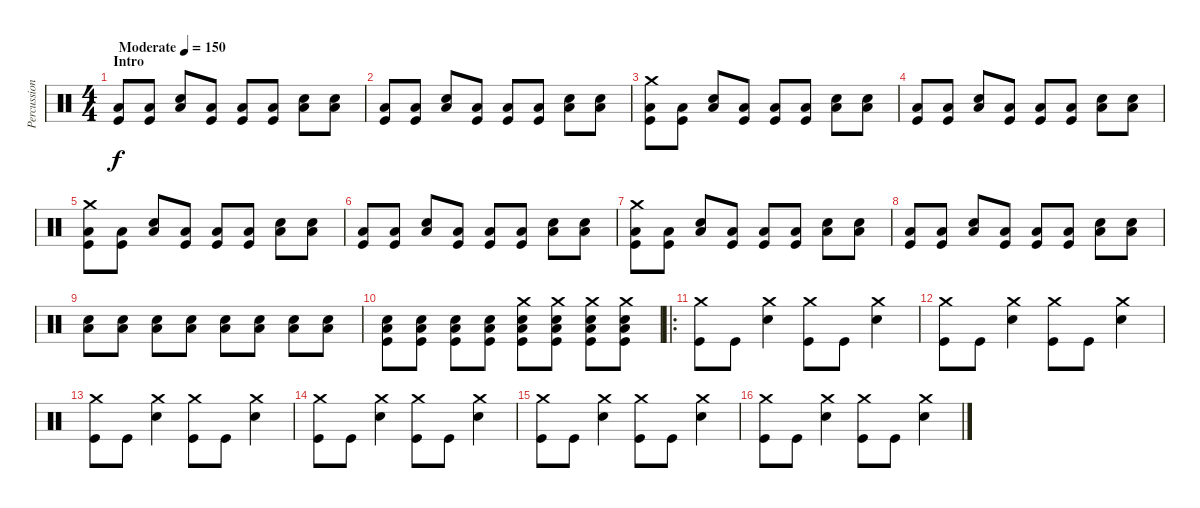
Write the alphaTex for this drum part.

\track ("Percussion" "Percussion") {instrument percussion}
\staff {score}
\articulation defaults
\ts (4 4)
\section ("" "Intro")
\tempo (150 "Moderate")
\clef neutral
\ks c
("Low Floor Tom (hit)" "Kick (hit)").8{dy f} ("Low Floor Tom (hit)" "Kick (hit)").8 ("Snare (hit) 2" "Low Floor Tom (hit)").8 ("Low Floor Tom (hit)" "Kick (hit)").8 ("Low Floor Tom (hit)" "Kick (hit)").8 ("Low Floor Tom (hit)" "Kick (hit)").8 ("Snare (hit) 2" "Low Floor Tom (hit)").8 ("Snare (hit) 2" "Low Floor Tom (hit)").8 |
("Low Floor Tom (hit)" "Kick (hit)").8 ("Low Floor Tom (hit)" "Kick (hit)").8 ("Snare (hit) 2" "Low Floor Tom (hit)").8 ("Low Floor Tom (hit)" "Kick (hit)").8 ("Low Floor Tom (hit)" "Kick (hit)").8 ("Low Floor Tom (hit)" "Kick (hit)").8 ("Snare (hit) 2" "Low Floor Tom (hit)").8 ("Snare (hit) 2" "Low Floor Tom (hit)").8 |
("Crash medium (hit)" "Low Floor Tom (hit)" "Kick (hit)").8 ("Low Floor Tom (hit)" "Kick (hit)").8 ("Snare (hit) 2" "Low Floor Tom (hit)").8 ("Low Floor Tom (hit)" "Kick (hit)").8 ("Low Floor Tom (hit)" "Kick (hit)").8 ("Low Floor Tom (hit)" "Kick (hit)").8 ("Snare (hit) 2" "Low Floor Tom (hit)").8 ("Snare (hit) 2" "Low Floor Tom (hit)").8 |
("Low Floor Tom (hit)" "Kick (hit)").8 ("Low Floor Tom (hit)" "Kick (hit)").8 ("Snare (hit) 2" "Low Floor Tom (hit)").8 ("Low Floor Tom (hit)" "Kick (hit)").8 ("Low Floor Tom (hit)" "Kick (hit)").8 ("Low Floor Tom (hit)" "Kick (hit)").8 ("Snare (hit) 2" "Low Floor Tom (hit)").8 ("Snare (hit) 2" "Low Floor Tom (hit)").8 |
("Crash medium (hit)" "Low Floor Tom (hit)" "Kick (hit)").8 ("Low Floor Tom (hit)" "Kick (hit)").8 ("Snare (hit) 2" "Low Floor Tom (hit)").8 ("Low Floor Tom (hit)" "Kick (hit)").8 ("Low Floor Tom (hit)" "Kick (hit)").8 ("Low Floor Tom (hit)" "Kick (hit)").8 ("Snare (hit) 2" "Low Floor Tom (hit)").8 ("Snare (hit) 2" "Low Floor Tom (hit)").8 |
("Low Floor Tom (hit)" "Kick (hit)").8 ("Low Floor Tom (hit)" "Kick (hit)").8 ("Snare (hit) 2" "Low Floor Tom (hit)").8 ("Low Floor Tom (hit)" "Kick (hit)").8 ("Low Floor Tom (hit)" "Kick (hit)").8 ("Low Floor Tom (hit)" "Kick (hit)").8 ("Snare (hit) 2" "Low Floor Tom (hit)").8 ("Snare (hit) 2" "Low Floor Tom (hit)").8 |
("Crash medium (hit)" "Low Floor Tom (hit)" "Kick (hit)").8 ("Low Floor Tom (hit)" "Kick (hit)").8 ("Snare (hit) 2" "Low Floor Tom (hit)").8 ("Low Floor Tom (hit)" "Kick (hit)").8 ("Low Floor Tom (hit)" "Kick (hit)").8 ("Low Floor Tom (hit)" "Kick (hit)").8 ("Snare (hit) 2" "Low Floor Tom (hit)").8 ("Snare (hit) 2" "Low Floor Tom (hit)").8 |
("Low Floor Tom (hit)" "Kick (hit)").8 ("Low Floor Tom (hit)" "Kick (hit)").8 ("Snare (hit) 2" "Low Floor Tom (hit)").8 ("Low Floor Tom (hit)" "Kick (hit)").8 ("Low Floor Tom (hit)" "Kick (hit)").8 ("Low Floor Tom (hit)" "Kick (hit)").8 ("Snare (hit) 2" "Low Floor Tom (hit)").8 ("Snare (hit) 2" "Low Floor Tom (hit)").8 |
("Snare (hit) 2" "Low Floor Tom (hit)").8 ("Snare (hit) 2" "Low Floor Tom (hit)").8 ("Snare (hit) 2" "Low Floor Tom (hit)").8 ("Snare (hit) 2" "Low Floor Tom (hit)").8 ("Snare (hit) 2" "Low Floor Tom (hit)").8 ("Snare (hit) 2" "Low Floor Tom (hit)").8 ("Snare (hit) 2" "Low Floor Tom (hit)").8 ("Snare (hit) 2" "Low Floor Tom (hit)").8 |
("Snare (hit) 2" "Low Floor Tom (hit)" "Kick (hit)").8 ("Snare (hit) 2" "Low Floor Tom (hit)" "Kick (hit)").8 ("Snare (hit) 2" "Low Floor Tom (hit)" "Kick (hit)").8 ("Snare (hit) 2" "Low Floor Tom (hit)" "Kick (hit)").8 ("Crash medium (hit)" "Snare (hit) 2" "Low Floor Tom (hit)" "Kick (hit)").8 ("Crash medium (hit)" "Snare (hit) 2" "Low Floor Tom (hit)" "Kick (hit)").8 ("Crash medium (hit)" "Snare (hit) 2" "Low Floor Tom (hit)" "Kick (hit)").8 ("Crash medium (hit)" "Snare (hit) 2" "Low Floor Tom (hit)" "Kick (hit)").8 |
\ro
("Crash medium (hit)" "Kick (hit)").8 "Kick (hit)".8 ("Crash medium (hit)" "Snare (hit) 2").4 ("Crash medium (hit)" "Kick (hit)").8 "Kick (hit)".8 ("Crash medium (hit)" "Snare (hit) 2").4 |
("Crash medium (hit)" "Kick (hit)").8 "Kick (hit)".8 ("Crash medium (hit)" "Snare (hit) 2").4 ("Crash medium (hit)" "Kick (hit)").8 "Kick (hit)".8 ("Crash medium (hit)" "Snare (hit) 2").4 |
("Crash medium (hit)" "Kick (hit)").8 "Kick (hit)".8 ("Crash medium (hit)" "Snare (hit) 2").4 ("Crash medium (hit)" "Kick (hit)").8 "Kick (hit)".8 ("Crash medium (hit)" "Snare (hit) 2").4 |
("Crash medium (hit)" "Kick (hit)").8 "Kick (hit)".8 ("Crash medium (hit)" "Snare (hit) 2").4 ("Crash medium (hit)" "Kick (hit)").8 "Kick (hit)".8 ("Crash medium (hit)" "Snare (hit) 2").4 |
("Crash medium (hit)" "Kick (hit)").8 "Kick (hit)".8 ("Crash medium (hit)" "Snare (hit) 2").4 ("Crash medium (hit)" "Kick (hit)").8 "Kick (hit)".8 ("Crash medium (hit)" "Snare (hit) 2").4 |
("Crash medium (hit)" "Kick (hit)").8 "Kick (hit)".8 ("Crash medium (hit)" "Snare (hit) 2").4 ("Crash medium (hit)" "Kick (hit)").8 "Kick (hit)".8 ("Crash medium (hit)" "Snare (hit) 2").4
